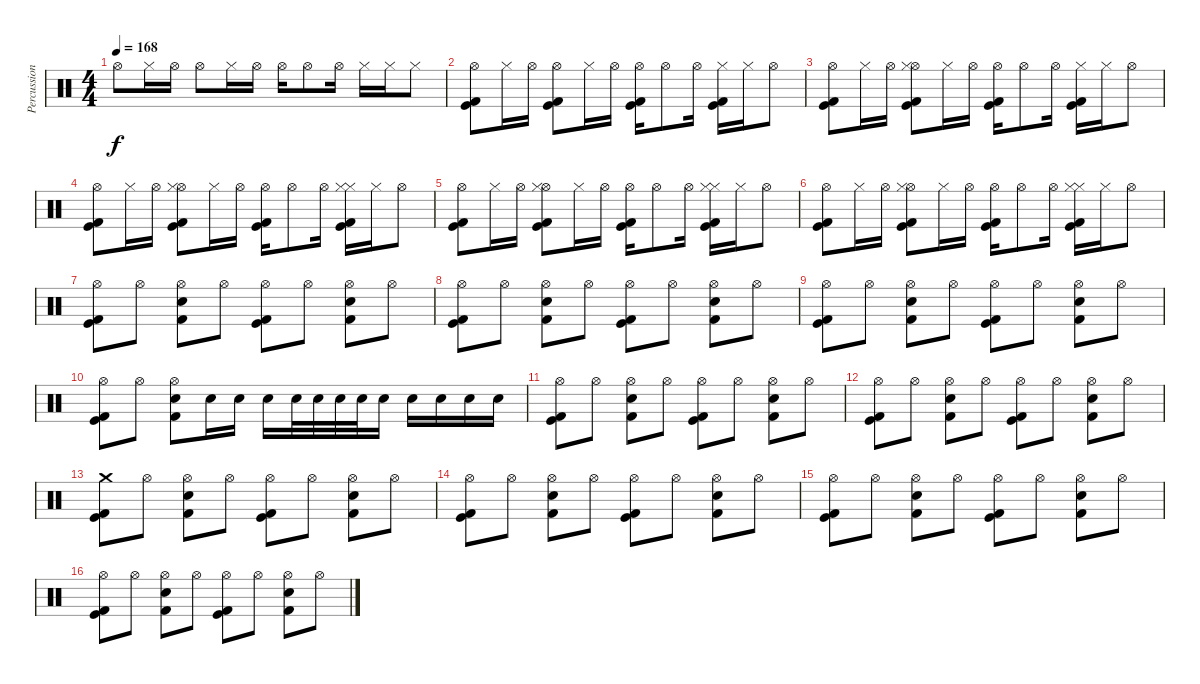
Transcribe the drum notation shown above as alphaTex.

\track ("Percussion" "Percussion") {instrument percussion}
\staff {score}
\articulation defaults
\ts (4 4)
\tempo 168
\clef neutral
\ks c "Hi-Hat (open)".8{dy f} "Hi-Hat (closed)".16 "Hi-Hat (open)".16 "Hi-Hat (open)".8 "Hi-Hat (closed)".16 "Hi-Hat (open)".16 "Hi-Hat (open)".16 "Hi-Hat (open)".8 "Hi-Hat (open)".16 "Hi-Hat (closed)".16 "Hi-Hat (closed)".16 "Hi-Hat (closed)".8
|
("Hi-Hat (open)" "Kick (hit)" "Kick (hit) 2").8 "Hi-Hat (closed)".16 "Hi-Hat (open)".16 ("Hi-Hat (open)" "Kick (hit) 2" "Kick (hit)").8 "Hi-Hat (closed)".16 "Hi-Hat (open)".16 ("Hi-Hat (open)" "Kick (hit) 2" "Kick (hit)").16 "Hi-Hat (open)".8 "Hi-Hat (open)".16 ("Hi-Hat (closed)" "Kick (hit)" "Kick (hit) 2").16 "Hi-Hat (closed)".16 "Hi-Hat (open)".8 |
("Hi-Hat (open)" "Kick (hit)" "Kick (hit) 2").8 "Hi-Hat (closed)".16 "Hi-Hat (open)".16 ("Hi-Hat (open)" "Kick (hit) 2" "Kick (hit)" "Hi-Hat (closed)").8 "Hi-Hat (closed)".16 "Hi-Hat (open)".16 ("Hi-Hat (open)" "Kick (hit) 2" "Kick (hit)").16 "Hi-Hat (open)".8 "Hi-Hat (open)".16 ("Hi-Hat (closed)" "Kick (hit)" "Kick (hit) 2").16 "Hi-Hat (closed)".16 "Hi-Hat (open)".8 |
("Hi-Hat (open)" "Kick (hit)" "Kick (hit) 2").8 "Hi-Hat (closed)".16 "Hi-Hat (open)".16 ("Hi-Hat (open)" "Kick (hit) 2" "Kick (hit)" "Hi-Hat (closed)").8 "Hi-Hat (closed)".16 "Hi-Hat (open)".16 ("Hi-Hat (open)" "Kick (hit) 2" "Kick (hit)").16 "Hi-Hat (open)".8 "Hi-Hat (open)".16 ("Hi-Hat (closed)" "Kick (hit)" "Kick (hit) 2" "Hi-Hat (closed)").16 "Hi-Hat (closed)".16 "Hi-Hat (open)".8 |
("Hi-Hat (open)" "Kick (hit)" "Kick (hit) 2").8 "Hi-Hat (closed)".16 "Hi-Hat (open)".16 ("Hi-Hat (open)" "Kick (hit) 2" "Kick (hit)" "Hi-Hat (closed)").8 "Hi-Hat (closed)".16 "Hi-Hat (open)".16 ("Hi-Hat (open)" "Kick (hit) 2" "Kick (hit)").16 "Hi-Hat (open)".8 "Hi-Hat (open)".16 ("Hi-Hat (closed)" "Kick (hit)" "Kick (hit) 2" "Hi-Hat (closed)").16 "Hi-Hat (closed)".16 "Hi-Hat (open)".8 |
("Hi-Hat (open)" "Kick (hit)" "Kick (hit) 2").8 "Hi-Hat (closed)".16 "Hi-Hat (open)".16 ("Hi-Hat (open)" "Kick (hit) 2" "Kick (hit)" "Hi-Hat (closed)").8 "Hi-Hat (closed)".16 "Hi-Hat (open)".16 ("Hi-Hat (open)" "Kick (hit) 2" "Kick (hit)").16 "Hi-Hat (open)".8 "Hi-Hat (open)".16 ("Hi-Hat (closed)" "Kick (hit)" "Kick (hit) 2" "Hi-Hat (closed)").16 "Hi-Hat (closed)".16 "Hi-Hat (open)".8 |
("Hi-Hat (open)" "Kick (hit)" "Kick (hit) 2").8 "Hi-Hat (open)".8 ("Hi-Hat (open)" "Electric Snare (hit)" "Kick (hit) 2").8 "Hi-Hat (open)".8 ("Hi-Hat (open)" "Kick (hit)" "Kick (hit) 2").8 "Hi-Hat (open)".8 ("Hi-Hat (open)" "Electric Snare (hit)" "Kick (hit) 2").8 "Hi-Hat (open)".8 |
("Hi-Hat (open)" "Kick (hit)" "Kick (hit) 2").8 "Hi-Hat (open)".8 ("Hi-Hat (open)" "Electric Snare (hit)" "Kick (hit) 2").8 "Hi-Hat (open)".8 ("Hi-Hat (open)" "Kick (hit)" "Kick (hit) 2").8 "Hi-Hat (open)".8 ("Hi-Hat (open)" "Electric Snare (hit)" "Kick (hit) 2").8 "Hi-Hat (open)".8 |
("Hi-Hat (open)" "Kick (hit)" "Kick (hit) 2").8 "Hi-Hat (open)".8 ("Hi-Hat (open)" "Electric Snare (hit)" "Kick (hit) 2").8 "Hi-Hat (open)".8 ("Hi-Hat (open)" "Kick (hit)" "Kick (hit) 2").8 "Hi-Hat (open)".8 ("Hi-Hat (open)" "Electric Snare (hit)" "Kick (hit) 2").8 "Hi-Hat (open)".8 |
("Hi-Hat (open)" "Kick (hit)" "Kick (hit) 2").8 "Hi-Hat (open)".8 ("Hi-Hat (open)" "Electric Snare (hit)" "Kick (hit) 2").8 "Electric Snare (hit)".16 "Electric Snare (hit)".16 "Electric Snare (hit)".16 "Electric Snare (hit)".32 "Electric Snare (hit)".32 "Electric Snare (hit)".32 "Electric Snare (hit)".32 "Electric Snare (hit)".16 "Electric Snare (hit)".16 "Electric Snare (hit)".16 "Electric Snare (hit)".16 "Electric Snare (hit)".16 |
("Hi-Hat (open)" "Kick (hit)" "Kick (hit) 2").8 "Hi-Hat (open)".8 ("Hi-Hat (open)" "Electric Snare (hit)" "Kick (hit) 2").8 "Hi-Hat (open)".8 ("Hi-Hat (open)" "Kick (hit)" "Kick (hit) 2").8 "Hi-Hat (open)".8 ("Hi-Hat (open)" "Electric Snare (hit)" "Kick (hit) 2").8 "Hi-Hat (open)".8 |
("Hi-Hat (open)" "Kick (hit)" "Kick (hit) 2").8 "Hi-Hat (open)".8 ("Hi-Hat (open)" "Electric Snare (hit)" "Kick (hit) 2").8 "Hi-Hat (open)".8 ("Hi-Hat (open)" "Kick (hit)" "Kick (hit) 2").8 "Hi-Hat (open)".8 ("Hi-Hat (open)" "Electric Snare (hit)" "Kick (hit) 2").8 "Hi-Hat (open)".8 |
("Crash medium (hit)" "Kick (hit)" "Kick (hit) 2").8 "Hi-Hat (open)".8 ("Hi-Hat (open)" "Electric Snare (hit)" "Kick (hit) 2").8 "Hi-Hat (open)".8 ("Hi-Hat (open)" "Kick (hit)" "Kick (hit) 2").8 "Hi-Hat (open)".8 ("Hi-Hat (open)" "Electric Snare (hit)" "Kick (hit) 2").8 "Hi-Hat (open)".8 |
("Hi-Hat (open)" "Kick (hit)" "Kick (hit) 2").8 "Hi-Hat (open)".8 ("Hi-Hat (open)" "Electric Snare (hit)" "Kick (hit) 2").8 "Hi-Hat (open)".8 ("Hi-Hat (open)" "Kick (hit)" "Kick (hit) 2").8 "Hi-Hat (open)".8 ("Hi-Hat (open)" "Electric Snare (hit)" "Kick (hit) 2").8 "Hi-Hat (open)".8 |
("Hi-Hat (open)" "Kick (hit)" "Kick (hit) 2").8 "Hi-Hat (open)".8 ("Hi-Hat (open)" "Electric Snare (hit)" "Kick (hit) 2").8 "Hi-Hat (open)".8 ("Hi-Hat (open)" "Kick (hit)" "Kick (hit) 2").8 "Hi-Hat (open)".8 ("Hi-Hat (open)" "Electric Snare (hit)" "Kick (hit) 2").8 "Hi-Hat (open)".8 |
("Hi-Hat (open)" "Kick (hit)" "Kick (hit) 2").8 "Hi-Hat (open)".8 ("Hi-Hat (open)" "Electric Snare (hit)" "Kick (hit) 2").8 "Hi-Hat (open)".8 ("Hi-Hat (open)" "Kick (hit)" "Kick (hit) 2").8 "Hi-Hat (open)".8 ("Hi-Hat (open)" "Electric Snare (hit)" "Kick (hit) 2").8 "Hi-Hat (open)".8
